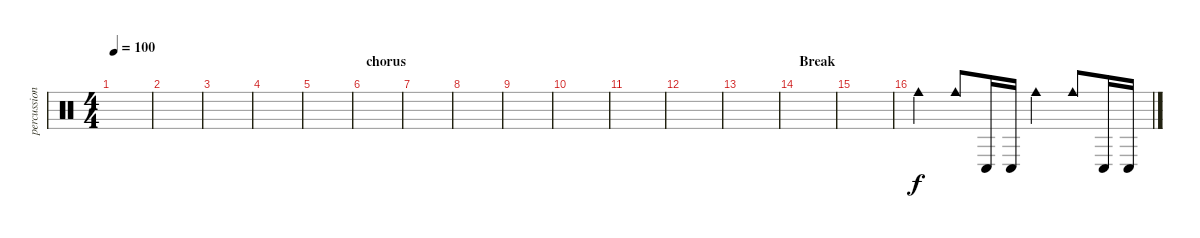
\track ("percussions" "percussion") {instrument percussion}
\staff {score}
\articulation defaults
\ts (4 4)
\tempo 100
\clef neutral
\ks c
|
|
|
|
|
\section ("" "chorus")
|
|
|
|
|
|
|
|
\section ("" "Break")
|
|
"Cowbell medium (hit)".4 "Cowbell medium (hit)".8 "Conga low (hit)".16 "Conga low (hit)".16 "Cowbell medium (hit)".4 "Cowbell medium (hit)".8 "Conga low (hit)".16 "Conga low (hit)".16
